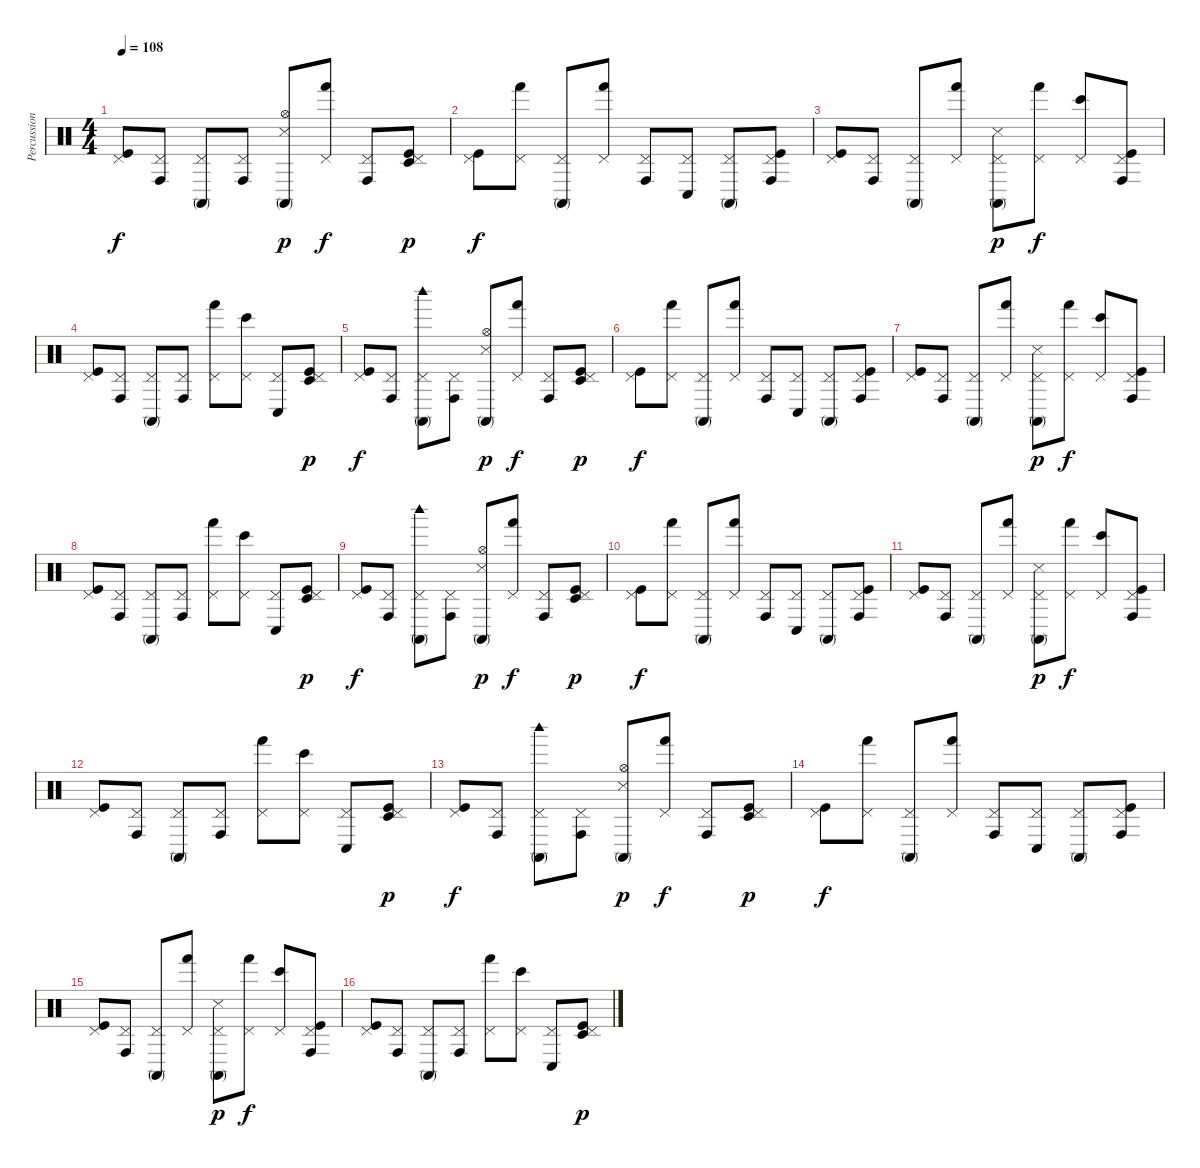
\track ("Percussions" "Percussion") {instrument percussion}
\staff {score}
\articulation defaults
\ts (4 4)
\tempo 108
\clef neutral
\ks c
("Pedal Hi-Hat (hit)" "Kick (hit)").8{dy f} ("Pedal Hi-Hat (hit)" "Conga high (hit)").8 ("Pedal Hi-Hat (hit)" "Conga high (mute)").8 ("Pedal Hi-Hat (hit)" "Conga high (hit)").8 ("Hi-Hat (open)" "Snare (side stick) 3" "Conga high (mute)").8{dy p} ("Pedal Hi-Hat (hit)" "Hand (hit)").8{dy f} ("Pedal Hi-Hat (hit)" "Conga high (hit)").8 ("Pedal Hi-Hat (hit)" "Kick (hit)" "Timbale low (hit)").8{dy p} |
("Pedal Hi-Hat (hit)" "Kick (hit)").8{dy f} ("Pedal Hi-Hat (hit)" "Hand (hit)").8 ("Pedal Hi-Hat (hit)" "Conga high (mute)").8 ("Pedal Hi-Hat (hit)" "Hand (hit)").8 ("Pedal Hi-Hat (hit)" "Conga high (hit)").8 ("Pedal Hi-Hat (hit)" "Conga low (hit)").8 ("Pedal Hi-Hat (hit)" "Conga high (mute)").8 ("Pedal Hi-Hat (hit)" "Kick (hit)" "Conga high (hit)").8 |
("Pedal Hi-Hat (hit)" "Kick (hit)").8 ("Pedal Hi-Hat (hit)" "Conga high (hit)").8 ("Pedal Hi-Hat (hit)" "Conga high (mute)").8 ("Pedal Hi-Hat (hit)" "Hand (hit)").8 ("Pedal Hi-Hat (hit)" "Conga high (mute)" "Snare (side stick) 3").8{dy p} ("Pedal Hi-Hat (hit)" "Hand (hit)").8{dy f} ("Pedal Hi-Hat (hit)" "Bongo High (hit)").8 ("Pedal Hi-Hat (hit)" "Conga high (hit)" "Kick (hit)").8 |
("Pedal Hi-Hat (hit)" "Kick (hit)").8 ("Pedal Hi-Hat (hit)" "Conga high (hit)").8 ("Pedal Hi-Hat (hit)" "Conga high (mute)").8 ("Pedal Hi-Hat (hit)" "Conga high (hit)").8 ("Pedal Hi-Hat (hit)" "Hand (hit)").8 ("Pedal Hi-Hat (hit)" "Bongo High (hit)").8 ("Pedal Hi-Hat (hit)" "Conga low (hit)").8 ("Pedal Hi-Hat (hit)" "Kick (hit)" "Timbale low (hit)").8{dy p} |
("Pedal Hi-Hat (hit)" "Kick (hit)").8{dy f} ("Pedal Hi-Hat (hit)" "Conga high (hit)").8 ("Pedal Hi-Hat (hit)" "Conga high (mute)" "Woodblock high (hit)").8 ("Pedal Hi-Hat (hit)" "Conga high (hit)").8 ("Hi-Hat (open)" "Snare (side stick) 3" "Conga high (mute)").8{dy p} ("Pedal Hi-Hat (hit)" "Hand (hit)").8{dy f} ("Pedal Hi-Hat (hit)" "Conga high (hit)").8 ("Pedal Hi-Hat (hit)" "Kick (hit)" "Timbale low (hit)").8{dy p} |
("Pedal Hi-Hat (hit)" "Kick (hit)").8{dy f} ("Pedal Hi-Hat (hit)" "Hand (hit)").8 ("Pedal Hi-Hat (hit)" "Conga high (mute)").8 ("Pedal Hi-Hat (hit)" "Hand (hit)").8 ("Pedal Hi-Hat (hit)" "Conga high (hit)").8 ("Pedal Hi-Hat (hit)" "Conga low (hit)").8 ("Pedal Hi-Hat (hit)" "Conga high (mute)").8 ("Pedal Hi-Hat (hit)" "Kick (hit)" "Conga high (hit)").8 |
("Pedal Hi-Hat (hit)" "Kick (hit)").8 ("Pedal Hi-Hat (hit)" "Conga high (hit)").8 ("Pedal Hi-Hat (hit)" "Conga high (mute)").8 ("Pedal Hi-Hat (hit)" "Hand (hit)").8 ("Pedal Hi-Hat (hit)" "Conga high (mute)" "Snare (side stick) 3").8{dy p} ("Pedal Hi-Hat (hit)" "Hand (hit)").8{dy f} ("Pedal Hi-Hat (hit)" "Bongo High (hit)").8 ("Pedal Hi-Hat (hit)" "Conga high (hit)" "Kick (hit)").8 |
("Pedal Hi-Hat (hit)" "Kick (hit)").8 ("Pedal Hi-Hat (hit)" "Conga high (hit)").8 ("Pedal Hi-Hat (hit)" "Conga high (mute)").8 ("Pedal Hi-Hat (hit)" "Conga high (hit)").8 ("Pedal Hi-Hat (hit)" "Hand (hit)").8 ("Pedal Hi-Hat (hit)" "Bongo High (hit)").8 ("Pedal Hi-Hat (hit)" "Conga low (hit)").8 ("Pedal Hi-Hat (hit)" "Kick (hit)" "Timbale low (hit)").8{dy p} |
("Pedal Hi-Hat (hit)" "Kick (hit)").8{dy f} ("Pedal Hi-Hat (hit)" "Conga high (hit)").8 ("Pedal Hi-Hat (hit)" "Conga high (mute)" "Woodblock high (hit)").8 ("Pedal Hi-Hat (hit)" "Conga high (hit)").8 ("Hi-Hat (open)" "Snare (side stick) 3" "Conga high (mute)").8{dy p} ("Pedal Hi-Hat (hit)" "Hand (hit)").8{dy f} ("Pedal Hi-Hat (hit)" "Conga high (hit)").8 ("Pedal Hi-Hat (hit)" "Kick (hit)" "Timbale low (hit)").8{dy p} |
("Pedal Hi-Hat (hit)" "Kick (hit)").8{dy f} ("Pedal Hi-Hat (hit)" "Hand (hit)").8 ("Pedal Hi-Hat (hit)" "Conga high (mute)").8 ("Pedal Hi-Hat (hit)" "Hand (hit)").8 ("Pedal Hi-Hat (hit)" "Conga high (hit)").8 ("Pedal Hi-Hat (hit)" "Conga low (hit)").8 ("Pedal Hi-Hat (hit)" "Conga high (mute)").8 ("Pedal Hi-Hat (hit)" "Kick (hit)" "Conga high (hit)").8 |
("Pedal Hi-Hat (hit)" "Kick (hit)").8 ("Pedal Hi-Hat (hit)" "Conga high (hit)").8 ("Pedal Hi-Hat (hit)" "Conga high (mute)").8 ("Pedal Hi-Hat (hit)" "Hand (hit)").8 ("Pedal Hi-Hat (hit)" "Conga high (mute)" "Snare (side stick) 3").8{dy p} ("Pedal Hi-Hat (hit)" "Hand (hit)").8{dy f} ("Pedal Hi-Hat (hit)" "Bongo High (hit)").8 ("Pedal Hi-Hat (hit)" "Conga high (hit)" "Kick (hit)").8 |
("Pedal Hi-Hat (hit)" "Kick (hit)").8 ("Pedal Hi-Hat (hit)" "Conga high (hit)").8 ("Pedal Hi-Hat (hit)" "Conga high (mute)").8 ("Pedal Hi-Hat (hit)" "Conga high (hit)").8 ("Pedal Hi-Hat (hit)" "Hand (hit)").8 ("Pedal Hi-Hat (hit)" "Bongo High (hit)").8 ("Pedal Hi-Hat (hit)" "Conga low (hit)").8 ("Pedal Hi-Hat (hit)" "Kick (hit)" "Timbale low (hit)").8{dy p} |
("Pedal Hi-Hat (hit)" "Kick (hit)").8{dy f} ("Pedal Hi-Hat (hit)" "Conga high (hit)").8 ("Pedal Hi-Hat (hit)" "Conga high (mute)" "Woodblock high (hit)").8 ("Pedal Hi-Hat (hit)" "Conga high (hit)").8 ("Hi-Hat (open)" "Snare (side stick) 3" "Conga high (mute)").8{dy p} ("Pedal Hi-Hat (hit)" "Hand (hit)").8{dy f} ("Pedal Hi-Hat (hit)" "Conga high (hit)").8 ("Pedal Hi-Hat (hit)" "Kick (hit)" "Timbale low (hit)").8{dy p} |
("Pedal Hi-Hat (hit)" "Kick (hit)").8{dy f} ("Pedal Hi-Hat (hit)" "Hand (hit)").8 ("Pedal Hi-Hat (hit)" "Conga high (mute)").8 ("Pedal Hi-Hat (hit)" "Hand (hit)").8 ("Pedal Hi-Hat (hit)" "Conga high (hit)").8 ("Pedal Hi-Hat (hit)" "Conga low (hit)").8 ("Pedal Hi-Hat (hit)" "Conga high (mute)").8 ("Pedal Hi-Hat (hit)" "Kick (hit)" "Conga high (hit)").8 |
("Pedal Hi-Hat (hit)" "Kick (hit)").8 ("Pedal Hi-Hat (hit)" "Conga high (hit)").8 ("Pedal Hi-Hat (hit)" "Conga high (mute)").8 ("Pedal Hi-Hat (hit)" "Hand (hit)").8 ("Pedal Hi-Hat (hit)" "Conga high (mute)" "Snare (side stick) 3").8{dy p} ("Pedal Hi-Hat (hit)" "Hand (hit)").8{dy f} ("Pedal Hi-Hat (hit)" "Bongo High (hit)").8 ("Pedal Hi-Hat (hit)" "Conga high (hit)" "Kick (hit)").8 |
("Pedal Hi-Hat (hit)" "Kick (hit)").8 ("Pedal Hi-Hat (hit)" "Conga high (hit)").8 ("Pedal Hi-Hat (hit)" "Conga high (mute)").8 ("Pedal Hi-Hat (hit)" "Conga high (hit)").8 ("Pedal Hi-Hat (hit)" "Hand (hit)").8 ("Pedal Hi-Hat (hit)" "Bongo High (hit)").8 ("Pedal Hi-Hat (hit)" "Conga low (hit)").8 ("Pedal Hi-Hat (hit)" "Kick (hit)" "Timbale low (hit)").8{dy p}
